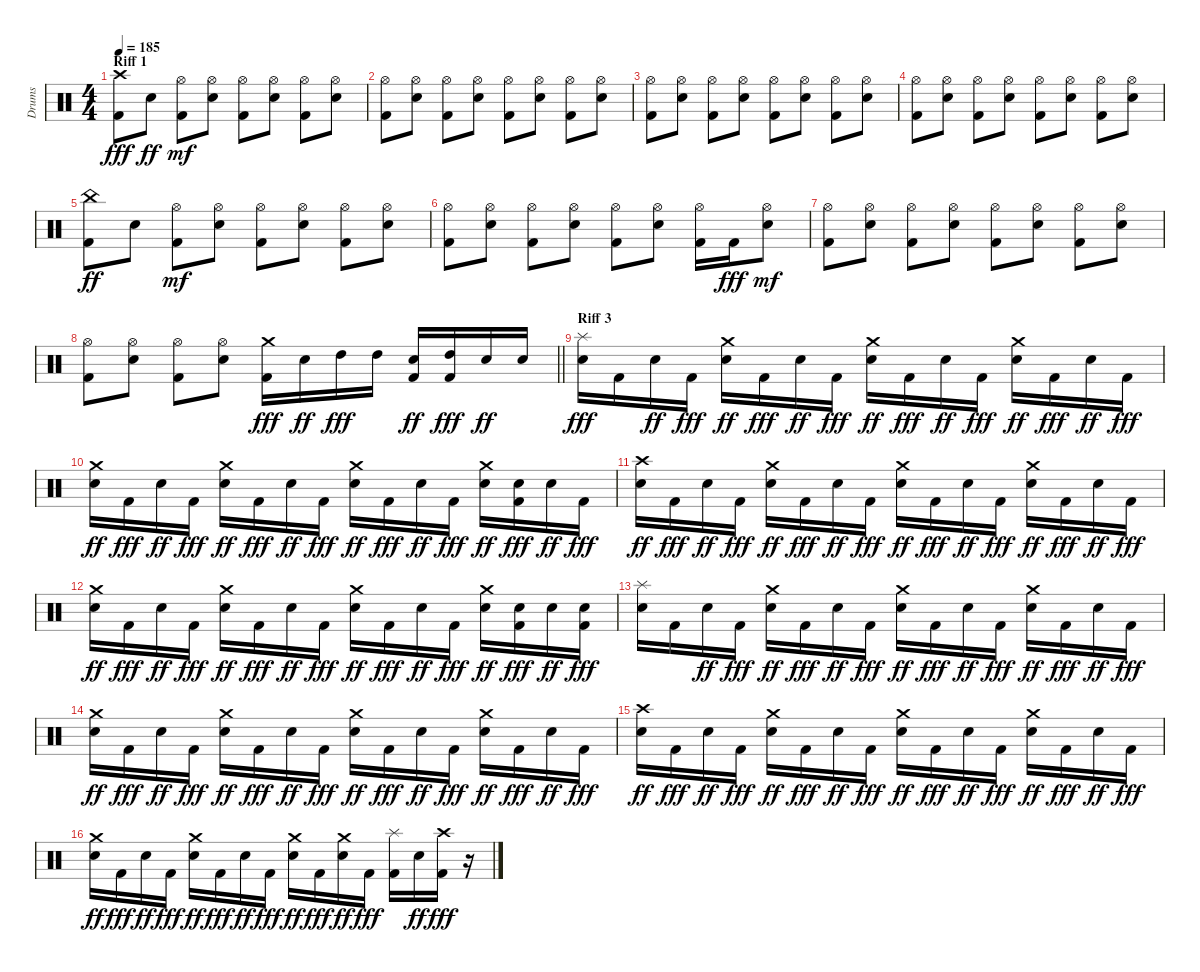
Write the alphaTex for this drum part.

\track ("Drums" "Drums") {instrument percussion}
\staff {score}
\articulation defaults
\ts (4 4)
\section ("" "Riff 1")
\tempo 185
\clef neutral
\ks c
("Kick (hit) 2" "Crash high (hit)").8{dy fff} "Snare (hit) 2".8{dy ff} ("Kick (hit) 2" "Hi-Hat (open)").8{dy mf} ("Snare (hit) 2" "Hi-Hat (open)").8 ("Kick (hit) 2" "Hi-Hat (open)").8 ("Snare (hit) 2" "Hi-Hat (open)").8 ("Kick (hit) 2" "Hi-Hat (open)").8 ("Snare (hit) 2" "Hi-Hat (open)").8 |
("Kick (hit) 2" "Hi-Hat (open)").8 ("Snare (hit) 2" "Hi-Hat (open)").8 ("Kick (hit) 2" "Hi-Hat (open)").8 ("Snare (hit) 2" "Hi-Hat (open)").8 ("Kick (hit) 2" "Hi-Hat (open)").8 ("Snare (hit) 2" "Hi-Hat (open)").8 ("Kick (hit) 2" "Hi-Hat (open)").8 ("Snare (hit) 2" "Hi-Hat (open)").8 |
("Kick (hit) 2" "Hi-Hat (open)").8 ("Snare (hit) 2" "Hi-Hat (open)").8 ("Kick (hit) 2" "Hi-Hat (open)").8 ("Snare (hit) 2" "Hi-Hat (open)").8 ("Kick (hit) 2" "Hi-Hat (open)").8 ("Snare (hit) 2" "Hi-Hat (open)").8 ("Kick (hit) 2" "Hi-Hat (open)").8 ("Snare (hit) 2" "Hi-Hat (open)").8 |
("Kick (hit) 2" "Hi-Hat (open)").8 ("Snare (hit) 2" "Hi-Hat (open)").8 ("Kick (hit) 2" "Hi-Hat (open)").8 ("Snare (hit) 2" "Hi-Hat (open)").8 ("Kick (hit) 2" "Hi-Hat (open)").8 ("Snare (hit) 2" "Hi-Hat (open)").8 ("Kick (hit) 2" "Hi-Hat (open)").8 ("Snare (hit) 2" "Hi-Hat (open)").8 |
("Kick (hit) 2" "China (hit)").8{dy ff} "Snare (hit) 2".8 ("Kick (hit) 2" "Hi-Hat (open)").8{dy mf} ("Snare (hit) 2" "Hi-Hat (open)").8 ("Kick (hit) 2" "Hi-Hat (open)").8 ("Snare (hit) 2" "Hi-Hat (open)").8 ("Kick (hit) 2" "Hi-Hat (open)").8 ("Snare (hit) 2" "Hi-Hat (open)").8 |
("Kick (hit) 2" "Hi-Hat (open)").8 ("Snare (hit) 2" "Hi-Hat (open)").8 ("Kick (hit) 2" "Hi-Hat (open)").8 ("Snare (hit) 2" "Hi-Hat (open)").8 ("Kick (hit) 2" "Hi-Hat (open)").8 ("Snare (hit) 2" "Hi-Hat (open)").8 ("Kick (hit) 2" "Hi-Hat (open)").16 "Kick (hit) 2".16{dy fff} ("Snare (hit) 2" "Hi-Hat (open)").8{dy mf} |
("Kick (hit) 2" "Hi-Hat (open)").8 ("Snare (hit) 2" "Hi-Hat (open)").8 ("Kick (hit) 2" "Hi-Hat (open)").8 ("Snare (hit) 2" "Hi-Hat (open)").8 ("Kick (hit) 2" "Hi-Hat (open)").8 ("Snare (hit) 2" "Hi-Hat (open)").8 ("Kick (hit) 2" "Hi-Hat (open)").8 ("Snare (hit) 2" "Hi-Hat (open)").8 |
\barLineRight lightlight
("Kick (hit) 2" "Hi-Hat (open)").8 ("Snare (hit) 2" "Hi-Hat (open)").8 ("Kick (hit) 2" "Hi-Hat (open)").8 ("Snare (hit) 2" "Hi-Hat (open)").8 ("Kick (hit) 2" "Crash medium (hit)").16{dy fff} "Snare (hit) 2".16{dy ff} "High Tom (hit)".16{dy fff} "High Tom (hit)".16 ("Kick (hit) 2" "Snare (hit) 2").16{dy ff} ("Kick (hit) 2" "High Tom (hit)").16{dy fff} "Snare (hit) 2".16{dy ff} "Snare (hit) 2".16 |
\section ("" "Riff 3")
("Snare (hit) 2" "Splash (hit)").16{dy fff} "Kick (hit) 2".16 "Snare (hit) 2".16{dy ff} "Kick (hit) 2".16{dy fff} ("Snare (hit) 2" "Crash medium (hit)").16{dy ff} "Kick (hit) 2".16{dy fff} "Snare (hit) 2".16{dy ff} "Kick (hit) 2".16{dy fff} ("Snare (hit) 2" "Crash medium (hit)").16{dy ff} "Kick (hit) 2".16{dy fff} "Snare (hit) 2".16{dy ff} "Kick (hit) 2".16{dy fff} ("Snare (hit) 2" "Crash medium (hit)").16{dy ff} "Kick (hit) 2".16{dy fff} "Snare (hit) 2".16{dy ff} "Kick (hit) 2".16{dy fff} |
("Snare (hit) 2" "Crash medium (hit)").16{dy ff} "Kick (hit) 2".16{dy fff} "Snare (hit) 2".16{dy ff} "Kick (hit) 2".16{dy fff} ("Snare (hit) 2" "Crash medium (hit)").16{dy ff} "Kick (hit) 2".16{dy fff} "Snare (hit) 2".16{dy ff} "Kick (hit) 2".16{dy fff} ("Snare (hit) 2" "Crash medium (hit)").16{dy ff} "Kick (hit) 2".16{dy fff} "Snare (hit) 2".16{dy ff} "Kick (hit) 2".16{dy fff} ("Snare (hit) 2" "Crash medium (hit)").16{dy ff} ("Kick (hit) 2" "Snare (hit) 2").16{dy fff} "Snare (hit) 2".16{dy ff} "Kick (hit) 2".16{dy fff} |
("Snare (hit) 2" "Crash high (hit)").16{dy ff} "Kick (hit) 2".16{dy fff} "Snare (hit) 2".16{dy ff} "Kick (hit) 2".16{dy fff} ("Snare (hit) 2" "Crash medium (hit)").16{dy ff} "Kick (hit) 2".16{dy fff} "Snare (hit) 2".16{dy ff} "Kick (hit) 2".16{dy fff} ("Snare (hit) 2" "Crash medium (hit)").16{dy ff} "Kick (hit) 2".16{dy fff} "Snare (hit) 2".16{dy ff} "Kick (hit) 2".16{dy fff} ("Snare (hit) 2" "Crash medium (hit)").16{dy ff} "Kick (hit) 2".16{dy fff} "Snare (hit) 2".16{dy ff} "Kick (hit) 2".16{dy fff} |
("Snare (hit) 2" "Crash medium (hit)").16{dy ff} "Kick (hit) 2".16{dy fff} "Snare (hit) 2".16{dy ff} "Kick (hit) 2".16{dy fff} ("Snare (hit) 2" "Crash medium (hit)").16{dy ff} "Kick (hit) 2".16{dy fff} "Snare (hit) 2".16{dy ff} "Kick (hit) 2".16{dy fff} ("Snare (hit) 2" "Crash medium (hit)").16{dy ff} "Kick (hit) 2".16{dy fff} "Snare (hit) 2".16{dy ff} "Kick (hit) 2".16{dy fff} ("Snare (hit) 2" "Crash medium (hit)").16{dy ff} ("Kick (hit) 2" "Snare (hit) 2").16{dy fff} "Snare (hit) 2".16{dy ff} ("Kick (hit) 2" "Snare (hit) 2").16{dy fff} |
("Snare (hit) 2" "Splash (hit)").16 "Kick (hit) 2".16 "Snare (hit) 2".16{dy ff} "Kick (hit) 2".16{dy fff} ("Snare (hit) 2" "Crash medium (hit)").16{dy ff} "Kick (hit) 2".16{dy fff} "Snare (hit) 2".16{dy ff} "Kick (hit) 2".16{dy fff} ("Snare (hit) 2" "Crash medium (hit)").16{dy ff} "Kick (hit) 2".16{dy fff} "Snare (hit) 2".16{dy ff} "Kick (hit) 2".16{dy fff} ("Snare (hit) 2" "Crash medium (hit)").16{dy ff} "Kick (hit) 2".16{dy fff} "Snare (hit) 2".16{dy ff} "Kick (hit) 2".16{dy fff} |
("Snare (hit) 2" "Crash medium (hit)").16{dy ff} "Kick (hit) 2".16{dy fff} "Snare (hit) 2".16{dy ff} "Kick (hit) 2".16{dy fff} ("Snare (hit) 2" "Crash medium (hit)").16{dy ff} "Kick (hit) 2".16{dy fff} "Snare (hit) 2".16{dy ff} "Kick (hit) 2".16{dy fff} ("Snare (hit) 2" "Crash medium (hit)").16{dy ff} "Kick (hit) 2".16{dy fff} "Snare (hit) 2".16{dy ff} "Kick (hit) 2".16{dy fff} ("Snare (hit) 2" "Crash medium (hit)").16{dy ff} "Kick (hit) 2".16{dy fff} "Snare (hit) 2".16{dy ff} "Kick (hit) 2".16{dy fff} |
("Snare (hit) 2" "Crash high (hit)").16{dy ff} "Kick (hit) 2".16{dy fff} "Snare (hit) 2".16{dy ff} "Kick (hit) 2".16{dy fff} ("Snare (hit) 2" "Crash medium (hit)").16{dy ff} "Kick (hit) 2".16{dy fff} "Snare (hit) 2".16{dy ff} "Kick (hit) 2".16{dy fff} ("Snare (hit) 2" "Crash medium (hit)").16{dy ff} "Kick (hit) 2".16{dy fff} "Snare (hit) 2".16{dy ff} "Kick (hit) 2".16{dy fff} ("Snare (hit) 2" "Crash medium (hit)").16{dy ff} "Kick (hit) 2".16{dy fff} "Snare (hit) 2".16{dy ff} "Kick (hit) 2".16{dy fff} |
("Snare (hit) 2" "Crash medium (hit)").16{dy ff} "Kick (hit) 2".16{dy fff} "Snare (hit) 2".16{dy ff} "Kick (hit) 2".16{dy fff} ("Snare (hit) 2" "Crash medium (hit)").16{dy ff} "Kick (hit) 2".16{dy fff} "Snare (hit) 2".16{dy ff} "Kick (hit) 2".16{dy fff} ("Snare (hit) 2" "Crash medium (hit)").16{dy ff} "Kick (hit) 2".16{dy fff} ("Snare (hit) 2" "Crash medium (hit)").16{dy ff} "Kick (hit) 2".16{dy fff} ("Kick (hit) 2" "Splash (hit)").16 "Snare (hit) 2".16{dy ff} ("Kick (hit) 2" "Crash high (hit)").16{dy fff} r.16
